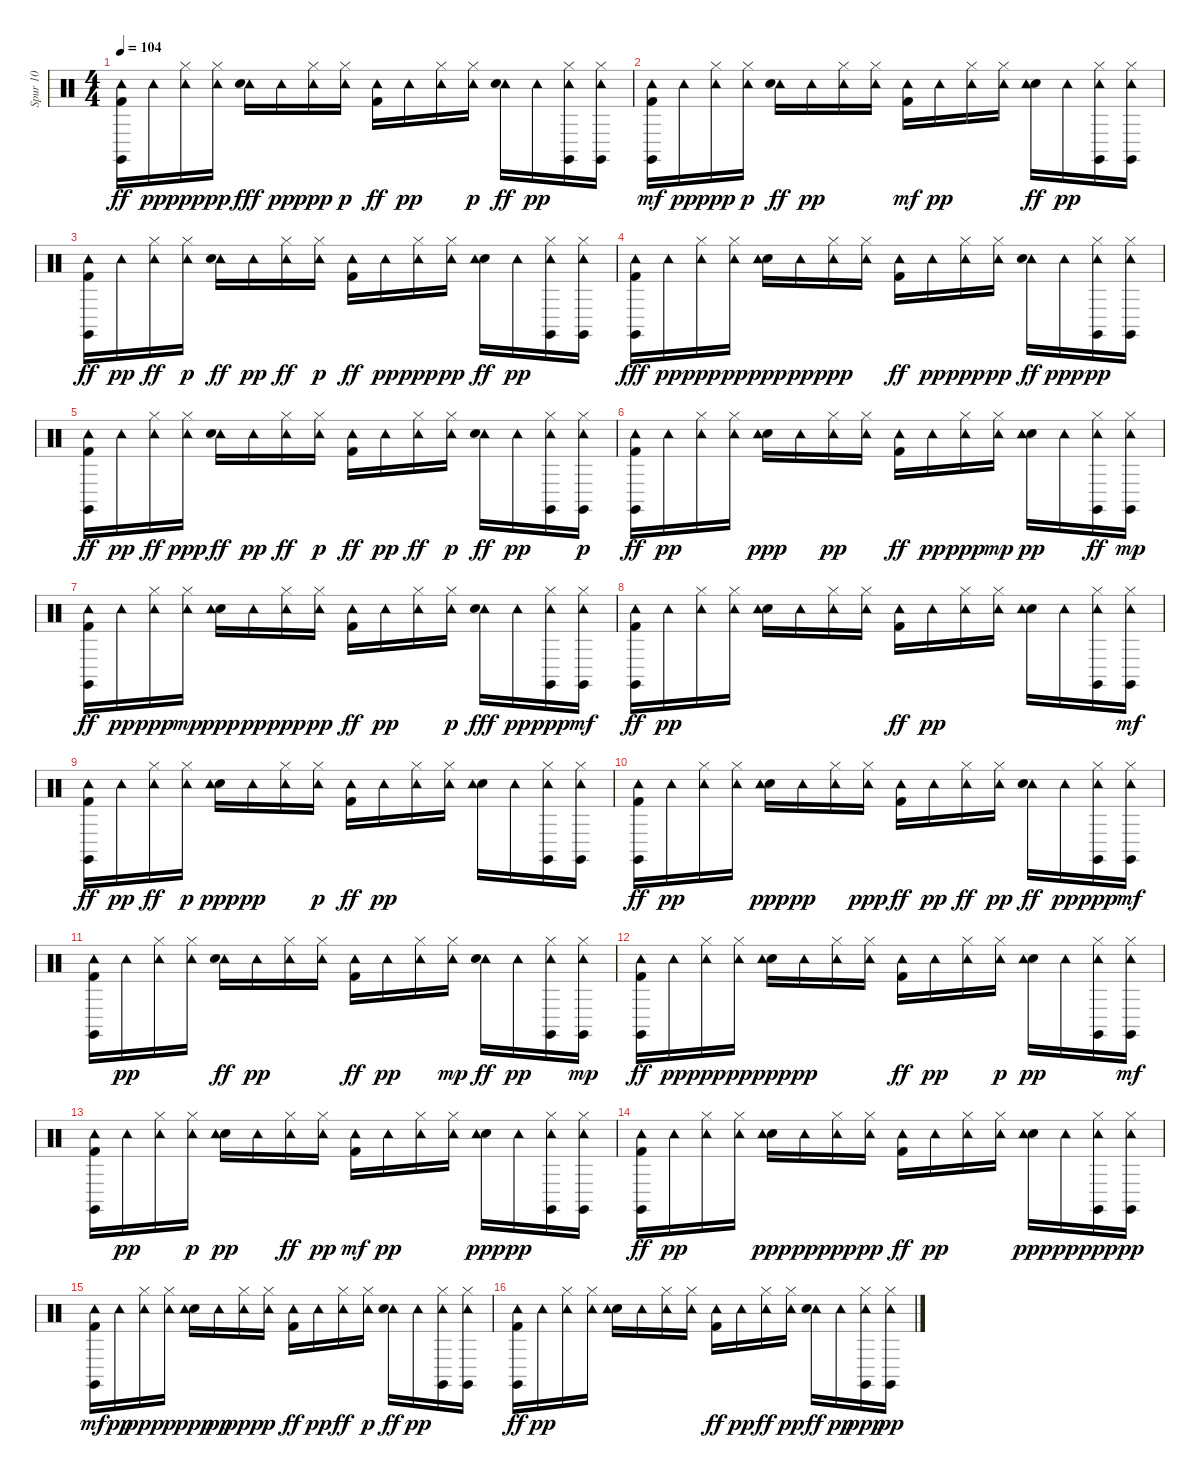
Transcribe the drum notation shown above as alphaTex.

\track ("Spur 10" "Spur 10") {instrument percussion}
\staff {score}
\articulation defaults
\ts (4 4)
\tempo 104
\clef neutral
\ks c
("Tambourine (hit)" "Claves (hit)" "Kick (hit) 2").16{dy ff} "Tambourine (hit)".16{dy pp} ("Hi-Hat (closed)" "Tambourine (hit)").16{dy ppp} ("Hi-Hat (closed)" "Tambourine (hit)").16{dy pp} ("Tambourine (hit)" "Electric Snare (hit)").16{dy fff} "Tambourine (hit)".16{dy pp} ("Hi-Hat (closed)" "Tambourine (hit)").16{dy ppp} ("Tambourine (hit)" "Hi-Hat (closed)").16{dy p} ("Tambourine (hit)" "Kick (hit) 2").16{dy ff} "Tambourine (hit)".16{dy pp} ("Hi-Hat (closed)" "Tambourine (hit)").16 ("Tambourine (hit)" "Hi-Hat (closed)").16{dy p} ("Tambourine (hit)" "Electric Snare (hit)").16{dy ff} "Tambourine (hit)".16{dy pp} ("Hi-Hat (closed)" "Claves (hit)" "Tambourine (hit)").16 ("Hi-Hat (closed)" "Claves (hit)" "Tambourine (hit)").16 |
("Kick (hit) 2" "Claves (hit)" "Tambourine (hit)").16{dy mf} "Tambourine (hit)".16{dy pp} ("Hi-Hat (closed)" "Tambourine (hit)").16{dy ppp} ("Tambourine (hit)" "Hi-Hat (closed)").16{dy p} ("Tambourine (hit)" "Electric Snare (hit)").16{dy ff} "Tambourine (hit)".16{dy pp} ("Hi-Hat (closed)" "Tambourine (hit)").16 ("Hi-Hat (closed)" "Tambourine (hit)").16 ("Kick (hit) 2" "Tambourine (hit)").16{dy mf} "Tambourine (hit)".16{dy pp} ("Hi-Hat (closed)" "Tambourine (hit)").16 ("Hi-Hat (closed)" "Tambourine (hit)").16 ("Electric Snare (hit)" "Tambourine (hit)").16{dy ff} "Tambourine (hit)".16{dy pp} ("Hi-Hat (closed)" "Claves (hit)" "Tambourine (hit)").16 ("Claves (hit)" "Hi-Hat (closed)" "Tambourine (hit)").16 |
("Kick (hit) 2" "Tambourine (hit)" "Claves (hit)").16{dy ff} "Tambourine (hit)".16{dy pp} ("Tambourine (hit)" "Hi-Hat (closed)").16{dy ff} ("Tambourine (hit)" "Hi-Hat (closed)").16{dy p} ("Tambourine (hit)" "Electric Snare (hit)").16{dy ff} "Tambourine (hit)".16{dy pp} ("Tambourine (hit)" "Hi-Hat (closed)").16{dy ff} ("Tambourine (hit)" "Hi-Hat (closed)").16{dy p} ("Tambourine (hit)" "Kick (hit) 2").16{dy ff} "Tambourine (hit)".16{dy pp} ("Hi-Hat (closed)" "Tambourine (hit)").16{dy ppp} ("Hi-Hat (closed)" "Tambourine (hit)").16{dy pp} ("Electric Snare (hit)" "Tambourine (hit)").16{dy ff} "Tambourine (hit)".16{dy pp} ("Hi-Hat (closed)" "Tambourine (hit)" "Claves (hit)").16 ("Hi-Hat (closed)" "Claves (hit)" "Tambourine (hit)").16 |
("Tambourine (hit)" "Kick (hit) 2" "Claves (hit)").16{dy fff} "Tambourine (hit)".16{dy pp} ("Hi-Hat (closed)" "Tambourine (hit)").16{dy ppp} ("Hi-Hat (closed)" "Tambourine (hit)").16{dy pp} ("Electric Snare (hit)" "Tambourine (hit)").16{dy ppp} "Tambourine (hit)".16{dy pp} ("Hi-Hat (closed)" "Tambourine (hit)").16{dy ppp} ("Hi-Hat (closed)" "Tambourine (hit)").16 ("Kick (hit) 2" "Tambourine (hit)").16{dy ff} "Tambourine (hit)".16{dy pp} ("Hi-Hat (closed)" "Tambourine (hit)").16{dy ppp} ("Hi-Hat (closed)" "Tambourine (hit)").16{dy pp} ("Tambourine (hit)" "Electric Snare (hit)").16{dy ff} "Tambourine (hit)".16{dy ppp} ("Hi-Hat (closed)" "Claves (hit)" "Tambourine (hit)").16{dy pp} ("Hi-Hat (closed)" "Claves (hit)" "Tambourine (hit)").16 |
("Kick (hit) 2" "Claves (hit)" "Tambourine (hit)").16{dy ff} "Tambourine (hit)".16{dy pp} ("Tambourine (hit)" "Hi-Hat (closed)").16{dy ff} ("Hi-Hat (closed)" "Tambourine (hit)").16{dy ppp} ("Tambourine (hit)" "Electric Snare (hit)").16{dy ff} "Tambourine (hit)".16{dy pp} ("Tambourine (hit)" "Hi-Hat (closed)").16{dy ff} ("Tambourine (hit)" "Hi-Hat (closed)").16{dy p} ("Kick (hit) 2" "Tambourine (hit)").16{dy ff} "Tambourine (hit)".16{dy pp} ("Tambourine (hit)" "Hi-Hat (closed)").16{dy ff} ("Tambourine (hit)" "Hi-Hat (closed)").16{dy p} ("Tambourine (hit)" "Electric Snare (hit)").16{dy ff} "Tambourine (hit)".16{dy pp} ("Claves (hit)" "Hi-Hat (closed)" "Tambourine (hit)").16 ("Claves (hit)" "Tambourine (hit)" "Hi-Hat (closed)").16{dy p} |
("Kick (hit) 2" "Claves (hit)" "Tambourine (hit)").16{dy ff} "Tambourine (hit)".16{dy pp} ("Hi-Hat (closed)" "Tambourine (hit)").16 ("Hi-Hat (closed)" "Tambourine (hit)").16 ("Electric Snare (hit)" "Tambourine (hit)").16{dy ppp} "Tambourine (hit)".16 ("Hi-Hat (closed)" "Tambourine (hit)").16{dy pp} ("Hi-Hat (closed)" "Tambourine (hit)").16 ("Tambourine (hit)" "Kick (hit) 2").16{dy ff} "Tambourine (hit)".16{dy pp} ("Hi-Hat (closed)" "Tambourine (hit)").16{dy ppp} ("Tambourine (hit)" "Hi-Hat (closed)").16{dy mp} ("Electric Snare (hit)" "Tambourine (hit)").16{dy pp} "Tambourine (hit)".16 ("Claves (hit)" "Tambourine (hit)" "Hi-Hat (closed)").16{dy ff} ("Claves (hit)" "Tambourine (hit)" "Hi-Hat (closed)").16{dy mp} |
("Tambourine (hit)" "Kick (hit) 2" "Claves (hit)").16{dy ff} "Tambourine (hit)".16{dy pp} ("Hi-Hat (closed)" "Tambourine (hit)").16{dy ppp} ("Tambourine (hit)" "Hi-Hat (closed)").16{dy mp} ("Electric Snare (hit)" "Tambourine (hit)").16{dy ppp} "Tambourine (hit)".16{dy pp} ("Hi-Hat (closed)" "Tambourine (hit)").16{dy ppp} ("Hi-Hat (closed)" "Tambourine (hit)").16{dy pp} ("Tambourine (hit)" "Kick (hit) 2").16{dy ff} "Tambourine (hit)".16{dy pp} ("Hi-Hat (closed)" "Tambourine (hit)").16 ("Tambourine (hit)" "Hi-Hat (closed)").16{dy p} ("Tambourine (hit)" "Electric Snare (hit)").16{dy fff} "Tambourine (hit)".16{dy pp} ("Hi-Hat (closed)" "Tambourine (hit)" "Claves (hit)").16{dy ppp} ("Tambourine (hit)" "Hi-Hat (closed)" "Claves (hit)").16{dy mf} |
("Kick (hit) 2" "Tambourine (hit)" "Claves (hit)").16{dy ff} "Tambourine (hit)".16{dy pp} ("Hi-Hat (closed)" "Tambourine (hit)").16 ("Hi-Hat (closed)" "Tambourine (hit)").16 ("Electric Snare (hit)" "Tambourine (hit)").16 "Tambourine (hit)".16 ("Hi-Hat (closed)" "Tambourine (hit)").16 ("Hi-Hat (closed)" "Tambourine (hit)").16 ("Tambourine (hit)" "Kick (hit) 2").16{dy ff} "Tambourine (hit)".16{dy pp} ("Hi-Hat (closed)" "Tambourine (hit)").16 ("Hi-Hat (closed)" "Tambourine (hit)").16 ("Electric Snare (hit)" "Tambourine (hit)").16 "Tambourine (hit)".16 ("Hi-Hat (closed)" "Claves (hit)" "Tambourine (hit)").16 ("Tambourine (hit)" "Hi-Hat (closed)" "Claves (hit)").16{dy mf} |
("Tambourine (hit)" "Kick (hit) 2" "Claves (hit)").16{dy ff} "Tambourine (hit)".16{dy pp} ("Tambourine (hit)" "Hi-Hat (closed)").16{dy ff} ("Tambourine (hit)" "Hi-Hat (closed)").16{dy p} ("Electric Snare (hit)" "Tambourine (hit)").16{dy ppp} "Tambourine (hit)".16{dy pp} ("Hi-Hat (closed)" "Tambourine (hit)").16 ("Tambourine (hit)" "Hi-Hat (closed)").16{dy p} ("Kick (hit) 2" "Tambourine (hit)").16{dy ff} "Tambourine (hit)".16{dy pp} ("Hi-Hat (closed)" "Tambourine (hit)").16 ("Hi-Hat (closed)" "Tambourine (hit)").16 ("Electric Snare (hit)" "Tambourine (hit)").16 "Tambourine (hit)".16 ("Claves (hit)" "Hi-Hat (closed)" "Tambourine (hit)").16 ("Claves (hit)" "Hi-Hat (closed)" "Tambourine (hit)").16 |
("Claves (hit)" "Tambourine (hit)" "Kick (hit) 2").16{dy ff} "Tambourine (hit)".16{dy pp} ("Hi-Hat (closed)" "Tambourine (hit)").16 ("Hi-Hat (closed)" "Tambourine (hit)").16 ("Electric Snare (hit)" "Tambourine (hit)").16{dy ppp} "Tambourine (hit)".16{dy pp} ("Hi-Hat (closed)" "Tambourine (hit)").16 ("Hi-Hat (closed)" "Tambourine (hit)").16{dy ppp} ("Tambourine (hit)" "Kick (hit) 2").16{dy ff} "Tambourine (hit)".16{dy pp} ("Tambourine (hit)" "Hi-Hat (closed)").16{dy ff} ("Hi-Hat (closed)" "Tambourine (hit)").16{dy pp} ("Tambourine (hit)" "Electric Snare (hit)").16{dy ff} "Tambourine (hit)".16{dy pp} ("Hi-Hat (closed)" "Claves (hit)" "Tambourine (hit)").16{dy ppp} ("Tambourine (hit)" "Hi-Hat (closed)" "Claves (hit)").16{dy mf} |
("Tambourine (hit)" "Kick (hit) 2" "Claves (hit)").16 "Tambourine (hit)".16{dy pp} ("Hi-Hat (closed)" "Tambourine (hit)").16 ("Hi-Hat (closed)" "Tambourine (hit)").16 ("Tambourine (hit)" "Electric Snare (hit)").16{dy ff} "Tambourine (hit)".16{dy pp} ("Hi-Hat (closed)" "Tambourine (hit)").16 ("Hi-Hat (closed)" "Tambourine (hit)").16 ("Tambourine (hit)" "Kick (hit) 2").16{dy ff} "Tambourine (hit)".16{dy pp} ("Hi-Hat (closed)" "Tambourine (hit)").16 ("Tambourine (hit)" "Hi-Hat (closed)").16{dy mp} ("Tambourine (hit)" "Electric Snare (hit)").16{dy ff} "Tambourine (hit)".16{dy pp} ("Hi-Hat (closed)" "Tambourine (hit)" "Claves (hit)").16 ("Tambourine (hit)" "Claves (hit)" "Hi-Hat (closed)").16{dy mp} |
("Kick (hit) 2" "Tambourine (hit)" "Claves (hit)").16{dy ff} "Tambourine (hit)".16{dy pp} ("Hi-Hat (closed)" "Tambourine (hit)").16{dy ppp} ("Hi-Hat (closed)" "Tambourine (hit)").16{dy pp} ("Electric Snare (hit)" "Tambourine (hit)").16{dy ppp} "Tambourine (hit)".16{dy pp} ("Hi-Hat (closed)" "Tambourine (hit)").16 ("Hi-Hat (closed)" "Tambourine (hit)").16 ("Tambourine (hit)" "Kick (hit) 2").16{dy ff} "Tambourine (hit)".16{dy pp} ("Hi-Hat (closed)" "Tambourine (hit)").16 ("Tambourine (hit)" "Hi-Hat (closed)").16{dy p} ("Electric Snare (hit)" "Tambourine (hit)").16{dy pp} "Tambourine (hit)".16 ("Hi-Hat (closed)" "Tambourine (hit)" "Claves (hit)").16 ("Hi-Hat (closed)" "Tambourine (hit)" "Claves (hit)").16{dy mf} |
("Tambourine (hit)" "Kick (hit) 2" "Claves (hit)").16 "Tambourine (hit)".16{dy pp} ("Hi-Hat (closed)" "Tambourine (hit)").16 ("Tambourine (hit)" "Hi-Hat (closed)").16{dy p} ("Electric Snare (hit)" "Tambourine (hit)").16{dy pp} "Tambourine (hit)".16 ("Tambourine (hit)" "Hi-Hat (closed)").16{dy ff} ("Hi-Hat (closed)" "Tambourine (hit)").16{dy pp} ("Kick (hit) 2" "Tambourine (hit)").16{dy mf} "Tambourine (hit)".16{dy pp} ("Hi-Hat (closed)" "Tambourine (hit)").16 ("Hi-Hat (closed)" "Tambourine (hit)").16 ("Electric Snare (hit)" "Tambourine (hit)").16{dy ppp} "Tambourine (hit)".16{dy pp} ("Hi-Hat (closed)" "Claves (hit)" "Tambourine (hit)").16 ("Claves (hit)" "Hi-Hat (closed)" "Tambourine (hit)").16 |
("Claves (hit)" "Kick (hit) 2" "Tambourine (hit)").16{dy ff} "Tambourine (hit)".16{dy pp} ("Hi-Hat (closed)" "Tambourine (hit)").16 ("Hi-Hat (closed)" "Tambourine (hit)").16 ("Electric Snare (hit)" "Tambourine (hit)").16{dy ppp} "Tambourine (hit)".16{dy pp} ("Hi-Hat (closed)" "Tambourine (hit)").16{dy ppp} ("Hi-Hat (closed)" "Tambourine (hit)").16{dy pp} ("Kick (hit) 2" "Tambourine (hit)").16{dy ff} "Tambourine (hit)".16{dy pp} ("Hi-Hat (closed)" "Tambourine (hit)").16 ("Hi-Hat (closed)" "Tambourine (hit)").16 ("Electric Snare (hit)" "Tambourine (hit)").16{dy ppp} "Tambourine (hit)".16{dy pp} ("Hi-Hat (closed)" "Claves (hit)" "Tambourine (hit)").16{dy ppp} ("Hi-Hat (closed)" "Claves (hit)" "Tambourine (hit)").16{dy pp} |
("Tambourine (hit)" "Kick (hit) 2" "Claves (hit)").16{dy mf} "Tambourine (hit)".16{dy pp} ("Hi-Hat (closed)" "Tambourine (hit)").16{dy ppp} ("Tambourine (hit)" "Hi-Hat (closed)").16{dy p} ("Electric Snare (hit)" "Tambourine (hit)").16{dy ppp} "Tambourine (hit)".16{dy pp} ("Hi-Hat (closed)" "Tambourine (hit)").16{dy ppp} ("Tambourine (hit)" "Hi-Hat (closed)").16{dy p} ("Tambourine (hit)" "Kick (hit) 2").16{dy ff} "Tambourine (hit)".16{dy pp} ("Tambourine (hit)" "Hi-Hat (closed)").16{dy ff} ("Tambourine (hit)" "Hi-Hat (closed)").16{dy p} ("Tambourine (hit)" "Electric Snare (hit)").16{dy ff} "Tambourine (hit)".16{dy pp} ("Hi-Hat (closed)" "Claves (hit)" "Tambourine (hit)").16 ("Hi-Hat (closed)" "Claves (hit)" "Tambourine (hit)").16 |
("Tambourine (hit)" "Claves (hit)" "Kick (hit) 2").16{dy ff} "Tambourine (hit)".16{dy pp} ("Hi-Hat (closed)" "Tambourine (hit)").16 ("Hi-Hat (closed)" "Tambourine (hit)").16 ("Electric Snare (hit)" "Tambourine (hit)").16 "Tambourine (hit)".16 ("Hi-Hat (closed)" "Tambourine (hit)").16 ("Hi-Hat (closed)" "Tambourine (hit)").16 ("Tambourine (hit)" "Kick (hit) 2").16{dy ff} "Tambourine (hit)".16{dy pp} ("Tambourine (hit)" "Hi-Hat (closed)").16{dy ff} ("Tambourine (hit)" "Hi-Hat (closed)").16{dy pp} ("Tambourine (hit)" "Electric Snare (hit)").16{dy ff} "Tambourine (hit)".16{dy pp} ("Claves (hit)" "Hi-Hat (closed)" "Tambourine (hit)").16{dy ppp} ("Claves (hit)" "Hi-Hat (closed)" "Tambourine (hit)").16{dy pp}
